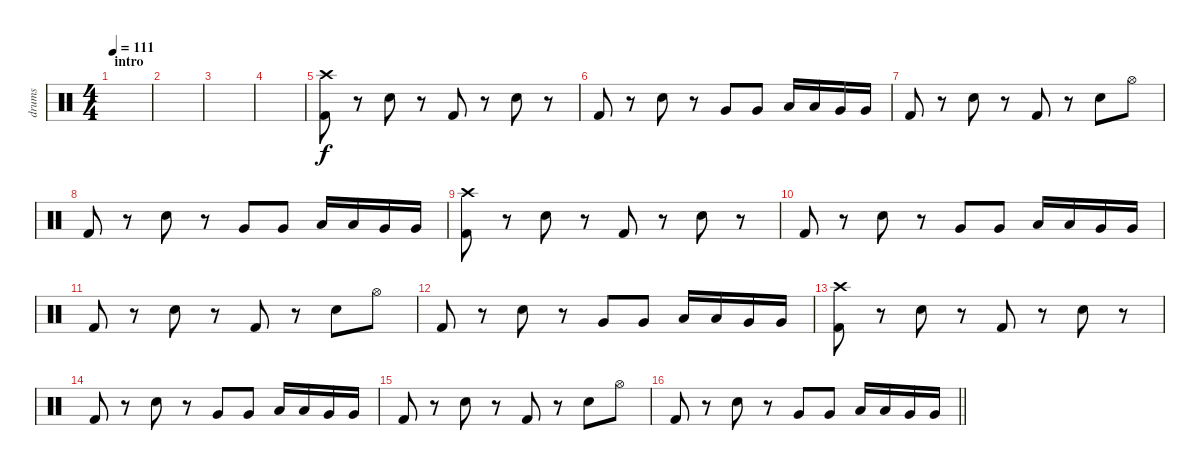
\track ("drums" "drums") {instrument percussion}
\staff {score}
\articulation defaults
\ts (4 4)
\section ("" "intro")
\tempo 111
\clef neutral
\ks c
|
|
|
|
("Kick (hit) 2" "Crash high (hit)").8 r.8 "Electric Snare (hit)".8 r.8 "Kick (hit) 2".8 r.8 "Electric Snare (hit)".8 r.8 |
"Kick (hit) 2".8 r.8 "Electric Snare (hit)".8 r.8 "Very Low Tom (hit)".8 "Very Low Tom (hit)".8 "Low Floor Tom (hit)".16 "Low Floor Tom (hit)".16 "Very Low Tom (hit)".16 "Very Low Tom (hit)".16 |
"Kick (hit) 2".8 r.8 "Electric Snare (hit)".8 r.8 "Kick (hit) 2".8 r.8 "Electric Snare (hit)".8 "Hi-Hat (open)".8 |
"Kick (hit) 2".8 r.8 "Electric Snare (hit)".8 r.8 "Very Low Tom (hit)".8 "Very Low Tom (hit)".8 "Low Floor Tom (hit)".16 "Low Floor Tom (hit)".16 "Very Low Tom (hit)".16 "Very Low Tom (hit)".16 |
("Kick (hit) 2" "Crash high (hit)").8 r.8 "Electric Snare (hit)".8 r.8 "Kick (hit) 2".8 r.8 "Electric Snare (hit)".8 r.8 |
"Kick (hit) 2".8 r.8 "Electric Snare (hit)".8 r.8 "Very Low Tom (hit)".8 "Very Low Tom (hit)".8 "Low Floor Tom (hit)".16 "Low Floor Tom (hit)".16 "Very Low Tom (hit)".16 "Very Low Tom (hit)".16 |
"Kick (hit) 2".8 r.8 "Electric Snare (hit)".8 r.8 "Kick (hit) 2".8 r.8 "Electric Snare (hit)".8 "Hi-Hat (open)".8 |
"Kick (hit) 2".8 r.8 "Electric Snare (hit)".8 r.8 "Very Low Tom (hit)".8 "Very Low Tom (hit)".8 "Low Floor Tom (hit)".16 "Low Floor Tom (hit)".16 "Very Low Tom (hit)".16 "Very Low Tom (hit)".16 |
("Kick (hit) 2" "Crash high (hit)").8 r.8 "Electric Snare (hit)".8 r.8 "Kick (hit) 2".8 r.8 "Electric Snare (hit)".8 r.8 |
"Kick (hit) 2".8 r.8 "Electric Snare (hit)".8 r.8 "Very Low Tom (hit)".8 "Very Low Tom (hit)".8 "Low Floor Tom (hit)".16 "Low Floor Tom (hit)".16 "Very Low Tom (hit)".16 "Very Low Tom (hit)".16 |
"Kick (hit) 2".8 r.8 "Electric Snare (hit)".8 r.8 "Kick (hit) 2".8 r.8 "Electric Snare (hit)".8 "Hi-Hat (open)".8 |
\barLineRight lightlight "Kick (hit) 2".8
r.8 "Electric Snare (hit)".8 r.8 "Very Low Tom (hit)".8 "Very Low Tom (hit)".8 "Low Floor Tom (hit)".16 "Low Floor Tom (hit)".16 "Very Low Tom (hit)".16 "Very Low Tom (hit)".16
